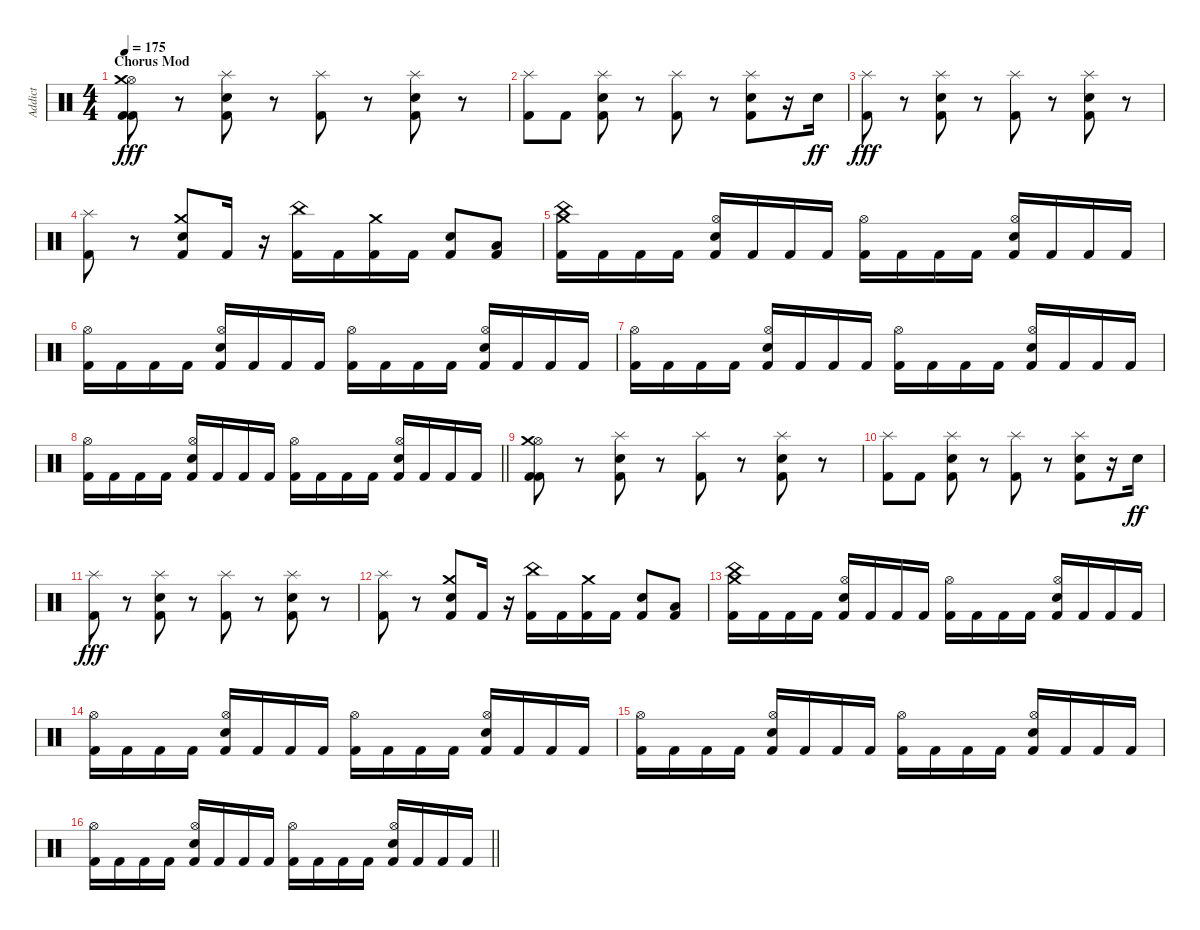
\track ("Addict" "Addict") {instrument percussion}
\staff {score}
\articulation defaults
\ts (4 4)
\section ("" "Chorus Mod")
\tempo 175
\clef neutral
\ks c
("Kick (hit) 2" "Hi-Hat (open)" "Kick (hit) 2" "Crash medium (hit)").8{dy fff} r.8 ("Kick (hit) 2" "Snare (hit) 2" "Splash (hit)").8 r.8 ("Kick (hit) 2" "Splash (hit)").8 r.8 ("Kick (hit) 2" "Snare (hit) 2" "Splash (hit)").8 r.8 |
("Kick (hit) 2" "Splash (hit)").8 "Kick (hit) 2".8 ("Kick (hit) 2" "Snare (hit) 2" "Splash (hit)").8 r.8 ("Kick (hit) 2" "Splash (hit)").8 r.8 ("Kick (hit) 2" "Snare (hit) 2" "Splash (hit)").8 r.16 "Snare (hit) 2".16{dy ff} |
("Kick (hit) 2" "Splash (hit)").8{dy fff} r.8 ("Kick (hit) 2" "Snare (hit) 2" "Splash (hit)").8 r.8 ("Kick (hit) 2" "Splash (hit)").8 r.8 ("Kick (hit) 2" "Snare (hit) 2" "Splash (hit)").8 r.8 |
("Kick (hit) 2" "Splash (hit)").8 r.8 ("Kick (hit) 2" "Snare (hit) 2" "Crash medium (hit)").8 "Kick (hit) 2".16 r.16 ("Kick (hit) 2" "China (hit)").16 "Kick (hit) 2".16 ("Kick (hit) 2" "Crash medium (hit)").16 "Kick (hit) 2".16 ("Kick (hit) 2" "Snare (hit) 2").8 ("Kick (hit) 2" "Low Tom (hit)").8 |
("Kick (hit) 2" "Crash medium (hit)" "China (hit)").16 "Kick (hit) 2".16 "Kick (hit) 2".16 "Kick (hit) 2".16 ("Kick (hit) 2" "Snare (hit) 2" "Hi-Hat (open)").16 "Kick (hit) 2".16 "Kick (hit) 2".16 "Kick (hit) 2".16 ("Kick (hit) 2" "Hi-Hat (open)").16 "Kick (hit) 2".16 "Kick (hit) 2".16 "Kick (hit) 2".16 ("Kick (hit) 2" "Snare (hit) 2" "Hi-Hat (open)").16 "Kick (hit) 2".16 "Kick (hit) 2".16 "Kick (hit) 2".16 |
("Kick (hit) 2" "Hi-Hat (open)").16 "Kick (hit) 2".16 "Kick (hit) 2".16 "Kick (hit) 2".16 ("Kick (hit) 2" "Snare (hit) 2" "Hi-Hat (open)").16 "Kick (hit) 2".16 "Kick (hit) 2".16 "Kick (hit) 2".16 ("Kick (hit) 2" "Hi-Hat (open)").16 "Kick (hit) 2".16 "Kick (hit) 2".16 "Kick (hit) 2".16 ("Kick (hit) 2" "Snare (hit) 2" "Hi-Hat (open)").16 "Kick (hit) 2".16 "Kick (hit) 2".16 "Kick (hit) 2".16 |
("Kick (hit) 2" "Hi-Hat (open)").16 "Kick (hit) 2".16 "Kick (hit) 2".16 "Kick (hit) 2".16 ("Kick (hit) 2" "Snare (hit) 2" "Hi-Hat (open)").16 "Kick (hit) 2".16 "Kick (hit) 2".16 "Kick (hit) 2".16 ("Kick (hit) 2" "Hi-Hat (open)").16 "Kick (hit) 2".16 "Kick (hit) 2".16 "Kick (hit) 2".16 ("Kick (hit) 2" "Snare (hit) 2" "Hi-Hat (open)").16 "Kick (hit) 2".16 "Kick (hit) 2".16 "Kick (hit) 2".16 |
\barLineRight lightlight
("Kick (hit) 2" "Hi-Hat (open)").16 "Kick (hit) 2".16 "Kick (hit) 2".16 "Kick (hit) 2".16 ("Kick (hit) 2" "Snare (hit) 2" "Hi-Hat (open)").16 "Kick (hit) 2".16 "Kick (hit) 2".16 "Kick (hit) 2".16 ("Kick (hit) 2" "Hi-Hat (open)").16 "Kick (hit) 2".16 "Kick (hit) 2".16 "Kick (hit) 2".16 ("Kick (hit) 2" "Snare (hit) 2" "Hi-Hat (open)").16 "Kick (hit) 2".16 "Kick (hit) 2".16 "Kick (hit) 2".16 |
("Kick (hit) 2" "Hi-Hat (open)" "Kick (hit) 2" "Crash medium (hit)").8 r.8 ("Kick (hit) 2" "Snare (hit) 2" "Splash (hit)").8 r.8 ("Kick (hit) 2" "Splash (hit)").8 r.8 ("Kick (hit) 2" "Snare (hit) 2" "Splash (hit)").8 r.8 |
("Kick (hit) 2" "Splash (hit)").8 "Kick (hit) 2".8 ("Kick (hit) 2" "Snare (hit) 2" "Splash (hit)").8 r.8 ("Kick (hit) 2" "Splash (hit)").8 r.8 ("Kick (hit) 2" "Snare (hit) 2" "Splash (hit)").8 r.16 "Snare (hit) 2".16{dy ff} |
("Kick (hit) 2" "Splash (hit)").8{dy fff} r.8 ("Kick (hit) 2" "Snare (hit) 2" "Splash (hit)").8 r.8 ("Kick (hit) 2" "Splash (hit)").8 r.8 ("Kick (hit) 2" "Snare (hit) 2" "Splash (hit)").8 r.8 |
("Kick (hit) 2" "Splash (hit)").8 r.8 ("Kick (hit) 2" "Snare (hit) 2" "Crash medium (hit)").8 "Kick (hit) 2".16 r.16 ("Kick (hit) 2" "China (hit)").16 "Kick (hit) 2".16 ("Kick (hit) 2" "Crash medium (hit)").16 "Kick (hit) 2".16 ("Kick (hit) 2" "Snare (hit) 2").8 ("Kick (hit) 2" "Low Tom (hit)").8 |
("Kick (hit) 2" "Crash medium (hit)" "China (hit)").16 "Kick (hit) 2".16 "Kick (hit) 2".16 "Kick (hit) 2".16 ("Kick (hit) 2" "Snare (hit) 2" "Hi-Hat (open)").16 "Kick (hit) 2".16 "Kick (hit) 2".16 "Kick (hit) 2".16 ("Kick (hit) 2" "Hi-Hat (open)").16 "Kick (hit) 2".16 "Kick (hit) 2".16 "Kick (hit) 2".16 ("Kick (hit) 2" "Snare (hit) 2" "Hi-Hat (open)").16 "Kick (hit) 2".16 "Kick (hit) 2".16 "Kick (hit) 2".16 |
("Kick (hit) 2" "Hi-Hat (open)").16 "Kick (hit) 2".16 "Kick (hit) 2".16 "Kick (hit) 2".16 ("Kick (hit) 2" "Snare (hit) 2" "Hi-Hat (open)").16 "Kick (hit) 2".16 "Kick (hit) 2".16 "Kick (hit) 2".16 ("Kick (hit) 2" "Hi-Hat (open)").16 "Kick (hit) 2".16 "Kick (hit) 2".16 "Kick (hit) 2".16 ("Kick (hit) 2" "Snare (hit) 2" "Hi-Hat (open)").16 "Kick (hit) 2".16 "Kick (hit) 2".16 "Kick (hit) 2".16 |
("Kick (hit) 2" "Hi-Hat (open)").16 "Kick (hit) 2".16 "Kick (hit) 2".16 "Kick (hit) 2".16 ("Kick (hit) 2" "Snare (hit) 2" "Hi-Hat (open)").16 "Kick (hit) 2".16 "Kick (hit) 2".16 "Kick (hit) 2".16 ("Kick (hit) 2" "Hi-Hat (open)").16 "Kick (hit) 2".16 "Kick (hit) 2".16 "Kick (hit) 2".16 ("Kick (hit) 2" "Snare (hit) 2" "Hi-Hat (open)").16 "Kick (hit) 2".16 "Kick (hit) 2".16 "Kick (hit) 2".16 |
\barLineRight lightlight
("Kick (hit) 2" "Hi-Hat (open)").16 "Kick (hit) 2".16 "Kick (hit) 2".16 "Kick (hit) 2".16 ("Kick (hit) 2" "Snare (hit) 2" "Hi-Hat (open)").16 "Kick (hit) 2".16 "Kick (hit) 2".16 "Kick (hit) 2".16 ("Kick (hit) 2" "Hi-Hat (open)").16 "Kick (hit) 2".16 "Kick (hit) 2".16 "Kick (hit) 2".16 ("Kick (hit) 2" "Snare (hit) 2" "Hi-Hat (open)").16 "Kick (hit) 2".16 "Kick (hit) 2".16 "Kick (hit) 2".16
